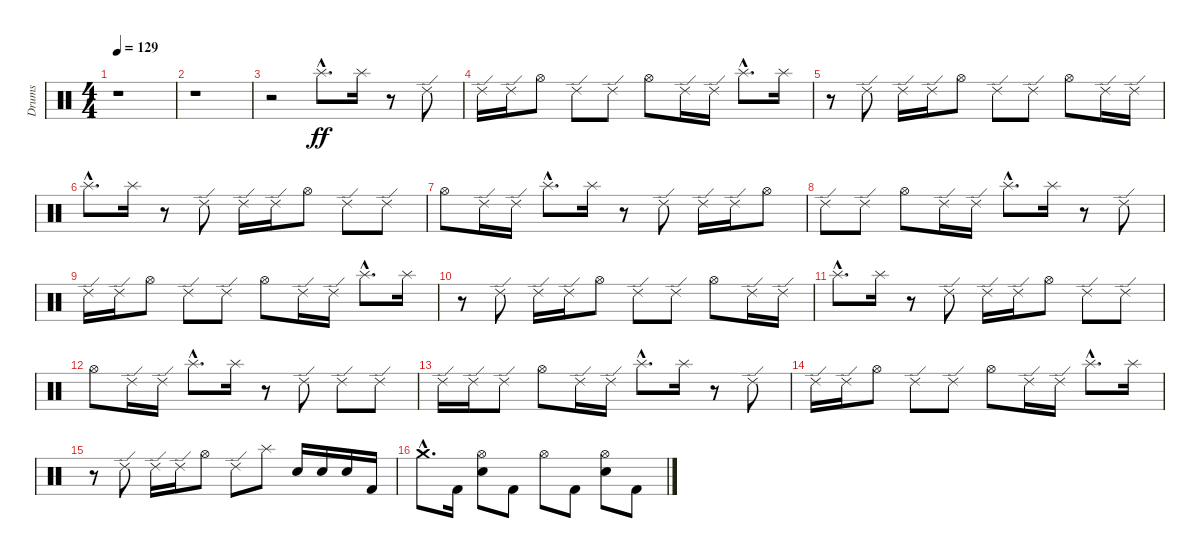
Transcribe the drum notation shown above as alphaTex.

\track ("Drums" "Drums") {instrument percussion}
\staff {score}
\articulation defaults
\ts (4 4)
\tempo 129
\clef neutral
\ks c
r.1{dy ff} |
r.1 |
r.2 "Splash (hit)"{hac}.8{d} "Splash (hit)".16 r.8 "Ride (edge) 2".8 |
"Ride (edge) 2".16 "Ride (edge) 2".16 "Hi-Hat (open)".8 "Ride (edge) 2".8 "Ride (edge) 2".8 "Hi-Hat (open)".8 "Ride (edge) 2".16 "Ride (edge) 2".16 "Splash (hit)"{hac}.8{d} "Splash (hit)".16 |
r.8 "Ride (edge) 2".8 "Ride (edge) 2".16 "Ride (edge) 2".16 "Hi-Hat (open)".8 "Ride (edge) 2".8 "Ride (edge) 2".8 "Hi-Hat (open)".8 "Ride (edge) 2".16 "Ride (edge) 2".16 |
"Splash (hit)"{hac}.8{d} "Splash (hit)".16 r.8 "Ride (edge) 2".8 "Ride (edge) 2".16 "Ride (edge) 2".16 "Hi-Hat (open)".8 "Ride (edge) 2".8 "Ride (edge) 2".8 |
"Hi-Hat (open)".8 "Ride (edge) 2".16 "Ride (edge) 2".16 "Splash (hit)"{hac}.8{d} "Splash (hit)".16 r.8 "Ride (edge) 2".8 "Ride (edge) 2".16 "Ride (edge) 2".16 "Hi-Hat (open)".8 |
"Ride (edge) 2".8 "Ride (edge) 2".8 "Hi-Hat (open)".8 "Ride (edge) 2".16 "Ride (edge) 2".16 "Splash (hit)"{hac}.8{d} "Splash (hit)".16 r.8 "Ride (edge) 2".8 |
"Ride (edge) 2".16 "Ride (edge) 2".16 "Hi-Hat (open)".8 "Ride (edge) 2".8 "Ride (edge) 2".8 "Hi-Hat (open)".8 "Ride (edge) 2".16 "Ride (edge) 2".16 "Splash (hit)"{hac}.8{d} "Splash (hit)".16 |
r.8 "Ride (edge) 2".8 "Ride (edge) 2".16 "Ride (edge) 2".16 "Hi-Hat (open)".8 "Ride (edge) 2".8 "Ride (edge) 2".8 "Hi-Hat (open)".8 "Ride (edge) 2".16 "Ride (edge) 2".16 |
"Splash (hit)"{hac}.8{d} "Splash (hit)".16 r.8 "Ride (edge) 2".8 "Ride (edge) 2".16 "Ride (edge) 2".16 "Hi-Hat (open)".8 "Ride (edge) 2".8 "Ride (edge) 2".8 |
"Hi-Hat (open)".8 "Ride (edge) 2".16 "Ride (edge) 2".16 "Splash (hit)"{hac}.8{d} "Splash (hit)".16 r.8 "Ride (edge) 2".8 "Ride (edge) 2".8 "Ride (edge) 2".8 |
"Ride (edge) 2".16 "Ride (edge) 2".16 "Ride (edge) 2".8 "Hi-Hat (open)".8 "Ride (edge) 2".16 "Ride (edge) 2".16 "Splash (hit)"{hac}.8{d} "Splash (hit)".16 r.8 "Ride (edge) 2".8 |
"Ride (edge) 2".16 "Ride (edge) 2".16 "Hi-Hat (open)".8 "Ride (edge) 2".8 "Ride (edge) 2".8 "Hi-Hat (open)".8 "Ride (edge) 2".16 "Ride (edge) 2".16 "Splash (hit)"{hac}.8{d} "Splash (hit)".16 |
r.8 "Ride (edge) 2".8 "Ride (edge) 2".16 "Ride (edge) 2".16 "Hi-Hat (open)".8 "Ride (edge) 2".8 "Splash (hit)".8 "Electric Snare (hit)".16 "Electric Snare (hit)".16 "Electric Snare (hit)".16 "Kick (hit) 2".16 |
"Crash medium (hit)"{hac}.8{d} "Kick (hit) 2".16 ("Electric Snare (hit)" "Hi-Hat (open)").8 "Kick (hit) 2".8 "Hi-Hat (open)".8 "Kick (hit) 2".8 ("Electric Snare (hit)" "Hi-Hat (open)").8 "Kick (hit) 2".8
